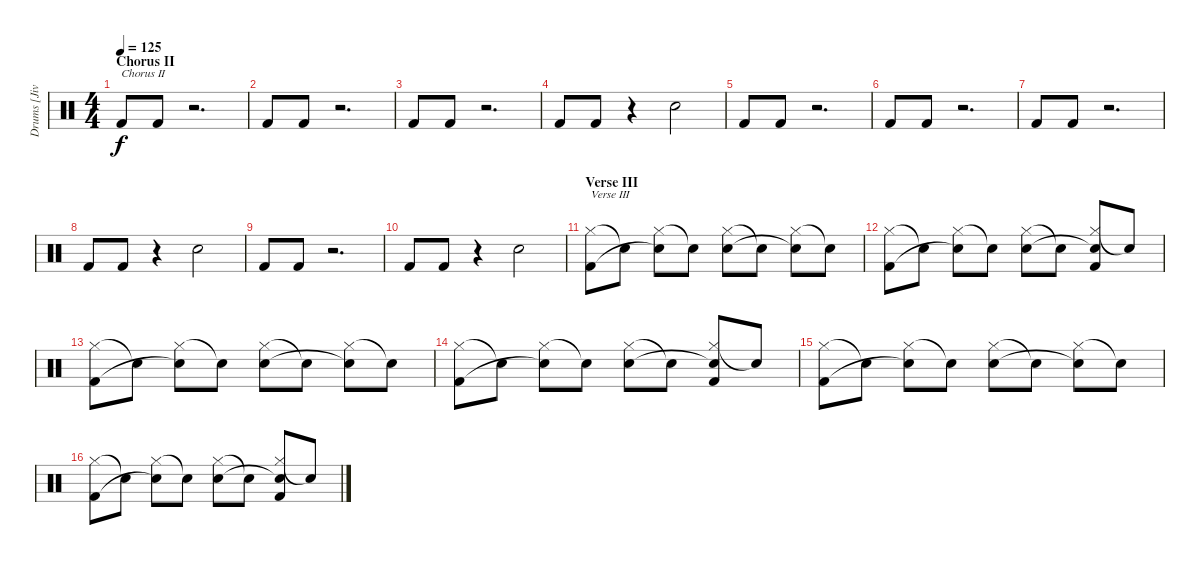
\track ("Drums [Jivarp]" "Drums [Jiv") {instrument percussion}
\staff {score}
\articulation defaults
\ts (4 4)
\section ("" "Chorus II")
\tempo 125
\clef neutral
\ks c "Kick (hit) 2".8{txt "Chorus II" dy f} "Kick (hit) 2".8
r.2{d} |
"Kick (hit) 2".8 "Kick (hit) 2".8 r.2{d} |
"Kick (hit) 2".8 "Kick (hit) 2".8 r.2{d} |
"Kick (hit) 2".8 "Kick (hit) 2".8 r.4 "Electric Snare (hit)".2 |
"Kick (hit) 2".8 "Kick (hit) 2".8 r.2{d} |
"Kick (hit) 2".8 "Kick (hit) 2".8 r.2{d} |
"Kick (hit) 2".8 "Kick (hit) 2".8 r.2{d} |
"Kick (hit) 2".8 "Kick (hit) 2".8 r.4 "Electric Snare (hit)".2 |
"Kick (hit) 2".8 "Kick (hit) 2".8 r.2{d} |
"Kick (hit) 2".8 "Kick (hit) 2".8 r.4 "Electric Snare (hit)".2 |
\section ("" "Verse III")
("Hi-Hat (closed)" "Kick (hit) 2").8{txt "Verse III"} "Snare (hit)"{t}.8 ("Hi-Hat (closed)" "Snare (hit)"{t}).8 "Snare (hit)"{t}.8 ("Hi-Hat (closed)" "Electric Snare (hit)").8 "Snare (hit)"{t}.8 ("Hi-Hat (closed)" "Snare (hit)"{t}).8 "Snare (hit)"{t}.8 |
("Hi-Hat (closed)" "Kick (hit) 2").8 "Snare (hit)"{t}.8 ("Hi-Hat (closed)" "Snare (hit)"{t}).8 "Snare (hit)"{t}.8 ("Hi-Hat (closed)" "Electric Snare (hit)").8 "Snare (hit)"{t}.8 ("Hi-Hat (closed)" "Snare (hit)"{t} "Kick (hit) 2").8 "Snare (hit)"{t}.8 |
("Hi-Hat (closed)" "Kick (hit) 2").8 "Snare (hit)"{t}.8 ("Hi-Hat (closed)" "Snare (hit)"{t}).8 "Snare (hit)"{t}.8 ("Hi-Hat (closed)" "Electric Snare (hit)").8 "Snare (hit)"{t}.8 ("Hi-Hat (closed)" "Snare (hit)"{t}).8 "Snare (hit)"{t}.8 |
("Hi-Hat (closed)" "Kick (hit) 2").8 "Snare (hit)"{t}.8 ("Hi-Hat (closed)" "Snare (hit)"{t}).8 "Snare (hit)"{t}.8 ("Hi-Hat (closed)" "Electric Snare (hit)").8 "Snare (hit)"{t}.8 ("Hi-Hat (closed)" "Snare (hit)"{t} "Kick (hit) 2").8 "Snare (hit)"{t}.8 |
("Hi-Hat (closed)" "Kick (hit) 2").8 "Snare (hit)"{t}.8 ("Hi-Hat (closed)" "Snare (hit)"{t}).8 "Snare (hit)"{t}.8 ("Hi-Hat (closed)" "Electric Snare (hit)").8 "Snare (hit)"{t}.8 ("Hi-Hat (closed)" "Snare (hit)"{t}).8 "Snare (hit)"{t}.8 |
("Hi-Hat (closed)" "Kick (hit) 2").8 "Snare (hit)"{t}.8 ("Hi-Hat (closed)" "Snare (hit)"{t}).8 "Snare (hit)"{t}.8 ("Hi-Hat (closed)" "Electric Snare (hit)").8 "Snare (hit)"{t}.8 ("Hi-Hat (closed)" "Snare (hit)"{t} "Kick (hit) 2").8 "Snare (hit)"{t}.8
